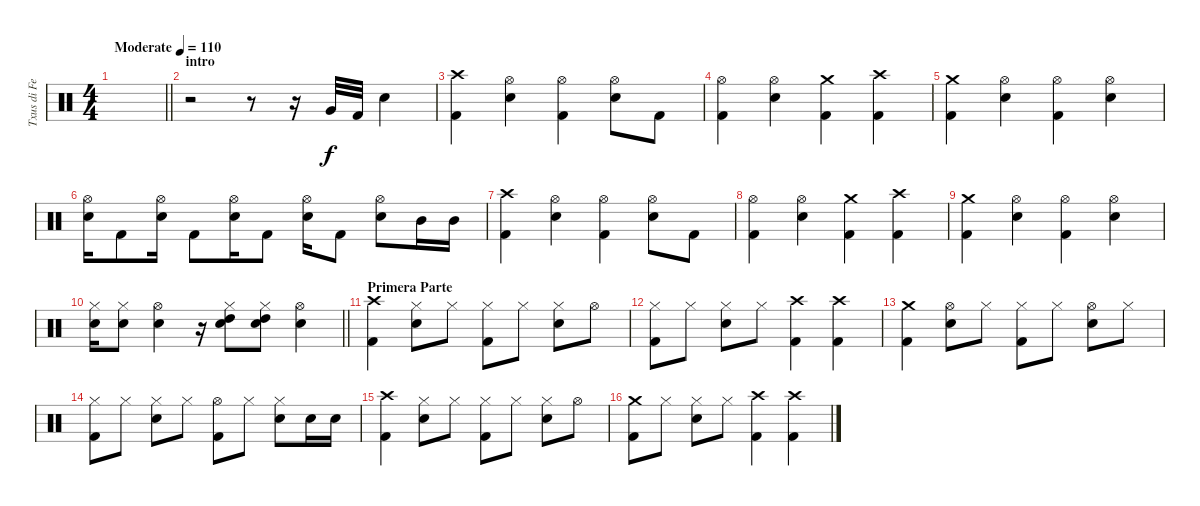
\track ("Txus di Fellatio" "Txus di Fe") {instrument percussion}
\staff {score}
\articulation defaults
\ts (4 4)
\tempo (110 "Moderate")
\clef neutral
\barLineRight lightlight
\ks c
|
\section ("" "intro")
r.2 r.8 r.16 "Very Low Tom (hit)".32 "Kick (hit) 2".32 "Electric Snare (hit)".4 |
("Kick (hit) 2" "Crash high (hit)").4 ("Hi-Hat (open)" "Electric Snare (hit)").4 ("Kick (hit) 2" "Hi-Hat (open)").4 ("Hi-Hat (open)" "Electric Snare (hit)").8 "Kick (hit) 2".8 |
("Kick (hit) 2" "Hi-Hat (open)").4 ("Hi-Hat (open)" "Electric Snare (hit)").4 ("Kick (hit) 2" "Crash medium (hit)").4 ("Kick (hit) 2" "Crash high (hit)").4 |
("Kick (hit) 2" "Crash medium (hit)").4 ("Hi-Hat (open)" "Electric Snare (hit)").4 ("Kick (hit) 2" "Hi-Hat (open)").4 ("Hi-Hat (open)" "Electric Snare (hit)").4 |
("Hi-Hat (open)" "Electric Snare (hit)").16 "Kick (hit) 2".8 ("Hi-Hat (open)" "Electric Snare (hit)").16 "Kick (hit) 2".8 ("Hi-Hat (open)" "Electric Snare (hit)").16 "Kick (hit) 2".8 ("Hi-Hat (open)" "Electric Snare (hit)").16 "Kick (hit) 2".8 ("Hi-Hat (open)" "Electric Snare (hit)").8 "Mid Tom (hit)".16 "Mid Tom (hit)".16 |
("Kick (hit) 2" "Crash high (hit)").4 ("Hi-Hat (open)" "Electric Snare (hit)").4 ("Kick (hit) 2" "Hi-Hat (open)").4 ("Hi-Hat (open)" "Electric Snare (hit)").8 "Kick (hit) 2".8 |
("Kick (hit) 2" "Hi-Hat (open)").4 ("Hi-Hat (open)" "Electric Snare (hit)").4 ("Kick (hit) 2" "Crash medium (hit)").4 ("Kick (hit) 2" "Crash high (hit)").4 |
("Kick (hit) 2" "Crash medium (hit)").4 ("Hi-Hat (open)" "Electric Snare (hit)").4 ("Kick (hit) 2" "Hi-Hat (open)").4 ("Hi-Hat (open)" "Electric Snare (hit)").4 |
\barLineRight lightlight
("Hi-Hat (closed)" "Electric Snare (hit)").16 ("Hi-Hat (closed)" "Electric Snare (hit)").8 ("Hi-Hat (open)" "Electric Snare (hit)").4 r.16 ("Hi-Hat (closed)" "Electric Snare (hit)" "High Tom (hit)").8 ("Hi-Hat (closed)" "Electric Snare (hit)" "High Tom (hit)").8 ("Hi-Hat (open)" "Electric Snare (hit)").4 |
\section ("" "Primera Parte")
("Kick (hit) 2" "Crash high (hit)").4 ("Hi-Hat (closed)" "Electric Snare (hit)").8 "Hi-Hat (closed)".8 ("Kick (hit) 2" "Hi-Hat (closed)").8 "Hi-Hat (closed)".8 ("Hi-Hat (closed)" "Electric Snare (hit)").8 "Hi-Hat (open)".8 |
("Kick (hit) 2" "Hi-Hat (closed)").8 "Hi-Hat (closed)".8 ("Hi-Hat (closed)" "Electric Snare (hit)").8 "Hi-Hat (closed)".8 ("Kick (hit) 2" "Crash high (hit)").4 ("Kick (hit) 2" "Crash high (hit)").4 |
("Kick (hit) 2" "Crash medium (hit)").4 ("Hi-Hat (open)" "Electric Snare (hit)").8 "Hi-Hat (closed)".8 ("Kick (hit) 2" "Hi-Hat (closed)").8 "Hi-Hat (closed)".8 ("Hi-Hat (open)" "Electric Snare (hit)").8 "Hi-Hat (closed)".8 |
("Kick (hit) 2" "Hi-Hat (closed)").8 "Hi-Hat (closed)".8 ("Hi-Hat (closed)" "Electric Snare (hit)").8 "Hi-Hat (closed)".8 ("Kick (hit) 2" "Hi-Hat (open)").8 "Hi-Hat (closed)".8 ("Hi-Hat (closed)" "Electric Snare (hit)").8 "Electric Snare (hit)".16 "Electric Snare (hit)".16 |
("Kick (hit) 2" "Crash high (hit)").4 ("Hi-Hat (closed)" "Electric Snare (hit)").8 "Hi-Hat (closed)".8 ("Kick (hit) 2" "Hi-Hat (closed)").8 "Hi-Hat (closed)".8 ("Hi-Hat (closed)" "Electric Snare (hit)").8 "Hi-Hat (open)".8 |
("Kick (hit) 2" "Crash medium (hit)").8 "Hi-Hat (closed)".8 ("Hi-Hat (closed)" "Electric Snare (hit)").8 "Hi-Hat (closed)".8 ("Kick (hit) 2" "Crash high (hit)").4 ("Kick (hit) 2" "Crash high (hit)").4
